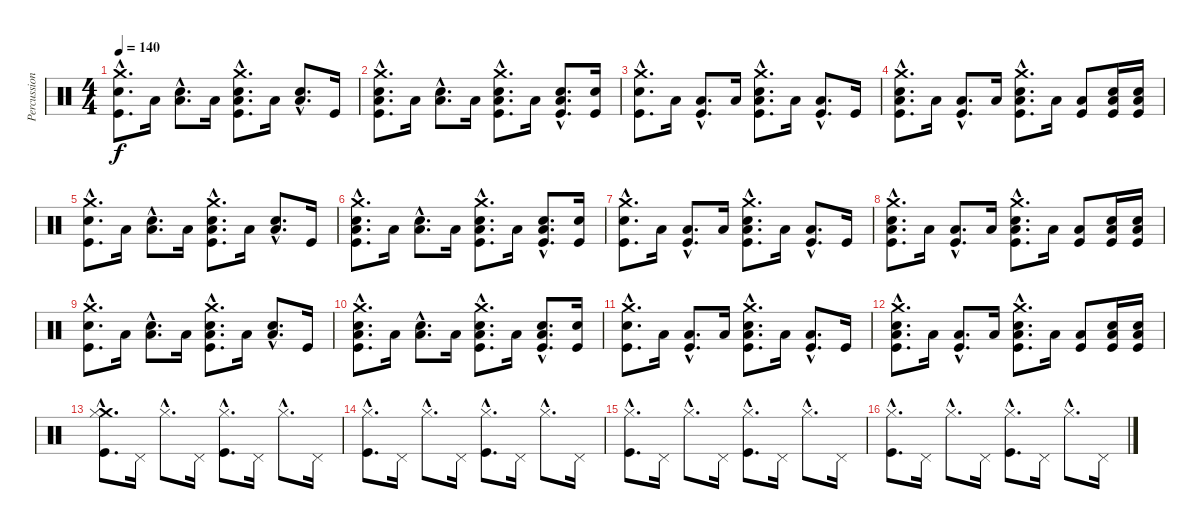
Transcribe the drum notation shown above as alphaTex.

\track ("Percussions" "Percussion") {instrument percussion}
\staff {score}
\articulation defaults
\ts (4 4)
\tempo 140
\clef neutral
\ks c
("Crash medium (hit)"{hac} "Electric Snare (hit)"{hac} "Kick (hit)"{hac}).8{d dy f} "Low Tom (hit)".16 ("Electric Snare (hit)"{hac} "Low Tom (hit)"{hac}).8{d} "Low Tom (hit)".16 ("Crash medium (hit)"{hac} "Electric Snare (hit)"{hac} "Low Tom (hit)"{hac} "Kick (hit)"{hac}).8{d} "Low Tom (hit)".16 ("Electric Snare (hit)"{hac} "Low Tom (hit)"{hac}).8{d} "Kick (hit)".16 |
("Crash medium (hit)"{hac} "Electric Snare (hit)"{hac} "Low Tom (hit)"{hac} "Kick (hit)"{hac}).8{d} "Low Tom (hit)".16 ("Electric Snare (hit)"{hac} "Low Tom (hit)"{hac}).8{d} "Low Tom (hit)".16 ("Crash medium (hit)"{hac} "Electric Snare (hit)"{hac} "Low Tom (hit)"{hac} "Kick (hit)"{hac}).8{d} "Low Tom (hit)".16 ("Electric Snare (hit)"{hac} "Low Tom (hit)"{hac} "Kick (hit)"{hac}).8{d} ("Electric Snare (hit)" "Kick (hit)").16 |
("Crash medium (hit)"{hac} "Electric Snare (hit)"{hac} "Kick (hit)"{hac}).8{d} "Low Tom (hit)".16 ("Kick (hit)"{hac} "Low Tom (hit)"{hac}).8{d} "Low Tom (hit)".16 ("Crash medium (hit)"{hac} "Electric Snare (hit)"{hac} "Low Tom (hit)"{hac} "Kick (hit)"{hac}).8{d} "Low Tom (hit)".16 ("Kick (hit)"{hac} "Low Tom (hit)"{hac}).8{d} "Kick (hit)".16 |
("Crash medium (hit)"{hac} "Electric Snare (hit)"{hac} "Low Tom (hit)"{hac} "Kick (hit)"{hac}).8{d} "Low Tom (hit)".16 ("Kick (hit)"{hac} "Low Tom (hit)"{hac}).8{d} "Low Tom (hit)".16 ("Crash medium (hit)"{hac} "Electric Snare (hit)"{hac} "Low Tom (hit)"{hac} "Kick (hit)"{hac}).8{d} "Low Tom (hit)".16 ("Kick (hit)" "Low Tom (hit)").8 ("Electric Snare (hit)" "Low Tom (hit)" "Kick (hit)").16 ("Electric Snare (hit)" "Low Tom (hit)" "Kick (hit)").16 |
("Crash medium (hit)"{hac} "Electric Snare (hit)"{hac} "Kick (hit)"{hac}).8{d} "Low Tom (hit)".16 ("Electric Snare (hit)"{hac} "Low Tom (hit)"{hac}).8{d} "Low Tom (hit)".16 ("Crash medium (hit)"{hac} "Electric Snare (hit)"{hac} "Low Tom (hit)"{hac} "Kick (hit)"{hac}).8{d} "Low Tom (hit)".16 ("Electric Snare (hit)"{hac} "Low Tom (hit)"{hac}).8{d} "Kick (hit)".16 |
("Crash medium (hit)"{hac} "Electric Snare (hit)"{hac} "Low Tom (hit)"{hac} "Kick (hit)"{hac}).8{d} "Low Tom (hit)".16 ("Electric Snare (hit)"{hac} "Low Tom (hit)"{hac}).8{d} "Low Tom (hit)".16 ("Crash medium (hit)"{hac} "Electric Snare (hit)"{hac} "Low Tom (hit)"{hac} "Kick (hit)"{hac}).8{d} "Low Tom (hit)".16 ("Electric Snare (hit)"{hac} "Low Tom (hit)"{hac} "Kick (hit)"{hac}).8{d} ("Electric Snare (hit)" "Kick (hit)").16 |
("Crash medium (hit)"{hac} "Electric Snare (hit)"{hac} "Kick (hit)"{hac}).8{d} "Low Tom (hit)".16 ("Kick (hit)"{hac} "Low Tom (hit)"{hac}).8{d} "Low Tom (hit)".16 ("Crash medium (hit)"{hac} "Electric Snare (hit)"{hac} "Low Tom (hit)"{hac} "Kick (hit)"{hac}).8{d} "Low Tom (hit)".16 ("Kick (hit)"{hac} "Low Tom (hit)"{hac}).8{d} "Kick (hit)".16 |
("Crash medium (hit)"{hac} "Electric Snare (hit)"{hac} "Low Tom (hit)"{hac} "Kick (hit)"{hac}).8{d} "Low Tom (hit)".16 ("Kick (hit)"{hac} "Low Tom (hit)"{hac}).8{d} "Low Tom (hit)".16 ("Crash medium (hit)"{hac} "Electric Snare (hit)"{hac} "Low Tom (hit)"{hac} "Kick (hit)"{hac}).8{d} "Low Tom (hit)".16 ("Kick (hit)" "Low Tom (hit)").8 ("Electric Snare (hit)" "Low Tom (hit)" "Kick (hit)").16 ("Electric Snare (hit)" "Low Tom (hit)" "Kick (hit)").16 |
("Crash medium (hit)"{hac} "Electric Snare (hit)"{hac} "Kick (hit)"{hac}).8{d} "Low Tom (hit)".16 ("Electric Snare (hit)"{hac} "Low Tom (hit)"{hac}).8{d} "Low Tom (hit)".16 ("Crash medium (hit)"{hac} "Electric Snare (hit)"{hac} "Low Tom (hit)"{hac} "Kick (hit)"{hac}).8{d} "Low Tom (hit)".16 ("Electric Snare (hit)"{hac} "Low Tom (hit)"{hac}).8{d} "Kick (hit)".16 |
("Crash medium (hit)"{hac} "Electric Snare (hit)"{hac} "Low Tom (hit)"{hac} "Kick (hit)"{hac}).8{d} "Low Tom (hit)".16 ("Electric Snare (hit)"{hac} "Low Tom (hit)"{hac}).8{d} "Low Tom (hit)".16 ("Crash medium (hit)"{hac} "Electric Snare (hit)"{hac} "Low Tom (hit)"{hac} "Kick (hit)"{hac}).8{d} "Low Tom (hit)".16 ("Electric Snare (hit)"{hac} "Low Tom (hit)"{hac} "Kick (hit)"{hac}).8{d} ("Electric Snare (hit)" "Kick (hit)").16 |
("Crash medium (hit)"{hac} "Electric Snare (hit)"{hac} "Kick (hit)"{hac}).8{d} "Low Tom (hit)".16 ("Kick (hit)"{hac} "Low Tom (hit)"{hac}).8{d} "Low Tom (hit)".16 ("Crash medium (hit)"{hac} "Electric Snare (hit)"{hac} "Low Tom (hit)"{hac} "Kick (hit)"{hac}).8{d} "Low Tom (hit)".16 ("Kick (hit)"{hac} "Low Tom (hit)"{hac}).8{d} "Kick (hit)".16 |
("Crash medium (hit)"{hac} "Electric Snare (hit)"{hac} "Low Tom (hit)"{hac} "Kick (hit)"{hac}).8{d} "Low Tom (hit)".16 ("Kick (hit)"{hac} "Low Tom (hit)"{hac}).8{d} "Low Tom (hit)".16 ("Crash medium (hit)"{hac} "Electric Snare (hit)"{hac} "Low Tom (hit)"{hac} "Kick (hit)"{hac}).8{d} "Low Tom (hit)".16 ("Kick (hit)" "Low Tom (hit)").8 ("Electric Snare (hit)" "Low Tom (hit)" "Kick (hit)").16 ("Electric Snare (hit)" "Low Tom (hit)" "Kick (hit)").16 |
("Crash medium (hit)"{hac} "Hi-Hat (closed)"{hac} "Kick (hit)"{hac}).8{d} "Pedal Hi-Hat (hit)".16 "Hi-Hat (closed)"{hac}.8{d} "Pedal Hi-Hat (hit)".16 ("Hi-Hat (closed)"{hac} "Kick (hit)"{hac}).8{d} "Pedal Hi-Hat (hit)".16 "Hi-Hat (closed)"{hac}.8{d} "Pedal Hi-Hat (hit)".16 |
("Hi-Hat (closed)"{hac} "Kick (hit)"{hac}).8{d} "Pedal Hi-Hat (hit)".16 "Hi-Hat (closed)"{hac}.8{d} "Pedal Hi-Hat (hit)".16 ("Hi-Hat (closed)"{hac} "Kick (hit)"{hac}).8{d} "Pedal Hi-Hat (hit)".16 "Hi-Hat (closed)"{hac}.8{d} "Pedal Hi-Hat (hit)".16 |
("Hi-Hat (closed)"{hac} "Kick (hit)"{hac}).8{d} "Pedal Hi-Hat (hit)".16 "Hi-Hat (closed)"{hac}.8{d} "Pedal Hi-Hat (hit)".16 ("Hi-Hat (closed)"{hac} "Kick (hit)"{hac}).8{d} "Pedal Hi-Hat (hit)".16 "Hi-Hat (closed)"{hac}.8{d} "Pedal Hi-Hat (hit)".16 |
("Hi-Hat (closed)"{hac} "Kick (hit)"{hac}).8{d} "Pedal Hi-Hat (hit)".16 "Hi-Hat (closed)"{hac}.8{d} "Pedal Hi-Hat (hit)".16 ("Hi-Hat (closed)"{hac} "Kick (hit)"{hac}).8{d} "Pedal Hi-Hat (hit)".16 "Hi-Hat (closed)"{hac}.8{d} "Pedal Hi-Hat (hit)".16
